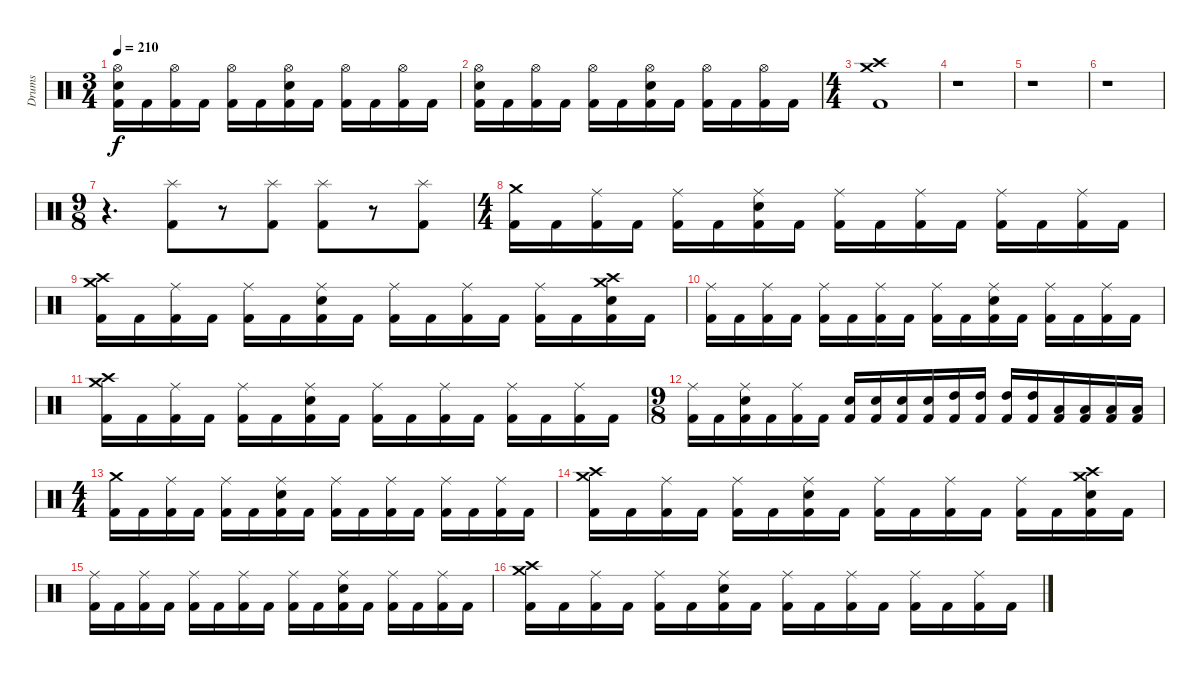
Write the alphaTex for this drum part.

\track ("Drums" "Drums") {instrument percussion}
\staff {score}
\articulation defaults
\ts (3 4)
\tempo 210
\clef neutral
\ks c
("Kick (hit) 2" "Electric Snare (hit)" "Hi-Hat (open)").16{dy f} "Kick (hit) 2".16 ("Kick (hit) 2" "Hi-Hat (open)").16 "Kick (hit) 2".16 ("Kick (hit) 2" "Hi-Hat (open)").16 "Kick (hit) 2".16 ("Kick (hit) 2" "Electric Snare (hit)" "Hi-Hat (open)").16 "Kick (hit) 2".16 ("Kick (hit) 2" "Hi-Hat (open)").16 "Kick (hit) 2".16 ("Kick (hit) 2" "Hi-Hat (open)").16 "Kick (hit) 2".16 |
("Kick (hit) 2" "Electric Snare (hit)" "Hi-Hat (open)").16 "Kick (hit) 2".16 ("Kick (hit) 2" "Hi-Hat (open)").16 "Kick (hit) 2".16 ("Kick (hit) 2" "Hi-Hat (open)").16 "Kick (hit) 2".16 ("Kick (hit) 2" "Electric Snare (hit)" "Hi-Hat (open)").16 "Kick (hit) 2".16 ("Kick (hit) 2" "Hi-Hat (open)").16 "Kick (hit) 2".16 ("Kick (hit) 2" "Hi-Hat (open)").16 "Kick (hit) 2".16 |
\ts (4 4)
("Kick (hit) 2" "Crash high (hit)" "Crash medium (hit)").1 |
r.1 |
r.1 |
r.1 |
\ts (9 8)
r.4{d} ("Kick (hit) 2" "Splash (hit)").8 r.8 ("Kick (hit) 2" "Splash (hit)").8 ("Kick (hit) 2" "Splash (hit)").8 r.8 ("Kick (hit) 2" "Splash (hit)").8 |
\ts (4 4)
("Kick (hit) 2" "Crash medium (hit)").16 "Kick (hit) 2".16 ("Kick (hit) 2" "Ride (middle)").16 "Kick (hit) 2".16 ("Kick (hit) 2" "Ride (middle)").16 "Kick (hit) 2".16 ("Kick (hit) 2" "Electric Snare (hit)" "Ride (middle)").16 "Kick (hit) 2".16 ("Kick (hit) 2" "Ride (middle)").16 "Kick (hit) 2".16 ("Kick (hit) 2" "Ride (middle)").16 "Kick (hit) 2".16 ("Kick (hit) 2" "Ride (middle)").16 "Kick (hit) 2".16 ("Kick (hit) 2" "Ride (middle)").16 "Kick (hit) 2".16 |
("Kick (hit) 2" "Crash high (hit)" "Crash medium (hit)").16 "Kick (hit) 2".16 ("Kick (hit) 2" "Ride (middle)").16 "Kick (hit) 2".16 ("Kick (hit) 2" "Ride (middle)").16 "Kick (hit) 2".16 ("Kick (hit) 2" "Electric Snare (hit)" "Ride (middle)").16 "Kick (hit) 2".16 ("Kick (hit) 2" "Ride (middle)").16 "Kick (hit) 2".16 ("Kick (hit) 2" "Ride (middle)").16 "Kick (hit) 2".16 ("Kick (hit) 2" "Ride (middle)").16 "Kick (hit) 2".16 ("Kick (hit) 2" "Electric Snare (hit)" "Crash high (hit)" "Crash medium (hit)").16 "Kick (hit) 2".16 |
("Kick (hit) 2" "Ride (middle)").16 "Kick (hit) 2".16 ("Kick (hit) 2" "Ride (middle)").16 "Kick (hit) 2".16 ("Kick (hit) 2" "Ride (middle)").16 "Kick (hit) 2".16 ("Kick (hit) 2" "Ride (middle)").16 "Kick (hit) 2".16 ("Kick (hit) 2" "Ride (middle)").16 "Kick (hit) 2".16 ("Kick (hit) 2" "Electric Snare (hit)" "Ride (middle)").16 "Kick (hit) 2".16 ("Kick (hit) 2" "Ride (middle)").16 "Kick (hit) 2".16 ("Kick (hit) 2" "Ride (middle)").16 "Kick (hit) 2".16 |
("Kick (hit) 2" "Crash high (hit)" "Crash medium (hit)").16 "Kick (hit) 2".16 ("Kick (hit) 2" "Ride (middle)").16 "Kick (hit) 2".16 ("Kick (hit) 2" "Ride (middle)").16 "Kick (hit) 2".16 ("Kick (hit) 2" "Electric Snare (hit)" "Ride (middle)").16 "Kick (hit) 2".16 ("Kick (hit) 2" "Ride (middle)").16 "Kick (hit) 2".16 ("Kick (hit) 2" "Ride (middle)").16 "Kick (hit) 2".16 ("Kick (hit) 2" "Ride (middle)").16 "Kick (hit) 2".16 ("Kick (hit) 2" "Ride (middle)").16 "Kick (hit) 2".16 |
\ts (9 8)
("Kick (hit) 2" "Ride (middle)").16 "Kick (hit) 2".16 ("Kick (hit) 2" "Electric Snare (hit)" "Ride (middle)").16 "Kick (hit) 2".16 ("Kick (hit) 2" "Ride (middle)").16 "Kick (hit) 2".16 ("Kick (hit) 2" "Electric Snare (hit)").16 ("Kick (hit) 2" "Electric Snare (hit)").16 ("Kick (hit) 2" "Electric Snare (hit)").16 ("Kick (hit) 2" "Electric Snare (hit)").16 ("Kick (hit) 2" "High Tom (hit)").16 ("Kick (hit) 2" "High Tom (hit)").16 ("Kick (hit) 2" "High Tom (hit)").16 ("Kick (hit) 2" "High Tom (hit)").16 ("Kick (hit) 2" "Low Tom (hit)").16 ("Kick (hit) 2" "Low Tom (hit)").16 ("Kick (hit) 2" "Low Tom (hit)").16 ("Kick (hit) 2" "Low Tom (hit)").16 |
\ts (4 4)
("Kick (hit) 2" "Crash medium (hit)").16 "Kick (hit) 2".16 ("Kick (hit) 2" "Ride (middle)").16 "Kick (hit) 2".16 ("Kick (hit) 2" "Ride (middle)").16 "Kick (hit) 2".16 ("Kick (hit) 2" "Electric Snare (hit)" "Ride (middle)").16 "Kick (hit) 2".16 ("Kick (hit) 2" "Ride (middle)").16 "Kick (hit) 2".16 ("Kick (hit) 2" "Ride (middle)").16 "Kick (hit) 2".16 ("Kick (hit) 2" "Ride (middle)").16 "Kick (hit) 2".16 ("Kick (hit) 2" "Ride (middle)").16 "Kick (hit) 2".16 |
("Kick (hit) 2" "Crash high (hit)" "Crash medium (hit)").16 "Kick (hit) 2".16 ("Kick (hit) 2" "Ride (middle)").16 "Kick (hit) 2".16 ("Kick (hit) 2" "Ride (middle)").16 "Kick (hit) 2".16 ("Kick (hit) 2" "Electric Snare (hit)" "Ride (middle)").16 "Kick (hit) 2".16 ("Kick (hit) 2" "Ride (middle)").16 "Kick (hit) 2".16 ("Kick (hit) 2" "Ride (middle)").16 "Kick (hit) 2".16 ("Kick (hit) 2" "Ride (middle)").16 "Kick (hit) 2".16 ("Kick (hit) 2" "Electric Snare (hit)" "Crash high (hit)" "Crash medium (hit)").16 "Kick (hit) 2".16 |
("Kick (hit) 2" "Ride (middle)").16 "Kick (hit) 2".16 ("Kick (hit) 2" "Ride (middle)").16 "Kick (hit) 2".16 ("Kick (hit) 2" "Ride (middle)").16 "Kick (hit) 2".16 ("Kick (hit) 2" "Ride (middle)").16 "Kick (hit) 2".16 ("Kick (hit) 2" "Ride (middle)").16 "Kick (hit) 2".16 ("Kick (hit) 2" "Electric Snare (hit)" "Ride (middle)").16 "Kick (hit) 2".16 ("Kick (hit) 2" "Ride (middle)").16 "Kick (hit) 2".16 ("Kick (hit) 2" "Ride (middle)").16 "Kick (hit) 2".16 |
("Kick (hit) 2" "Crash high (hit)" "Crash medium (hit)").16 "Kick (hit) 2".16 ("Kick (hit) 2" "Ride (middle)").16 "Kick (hit) 2".16 ("Kick (hit) 2" "Ride (middle)").16 "Kick (hit) 2".16 ("Kick (hit) 2" "Electric Snare (hit)" "Ride (middle)").16 "Kick (hit) 2".16 ("Kick (hit) 2" "Ride (middle)").16 "Kick (hit) 2".16 ("Kick (hit) 2" "Ride (middle)").16 "Kick (hit) 2".16 ("Kick (hit) 2" "Ride (middle)").16 "Kick (hit) 2".16 ("Kick (hit) 2" "Ride (middle)").16 "Kick (hit) 2".16
